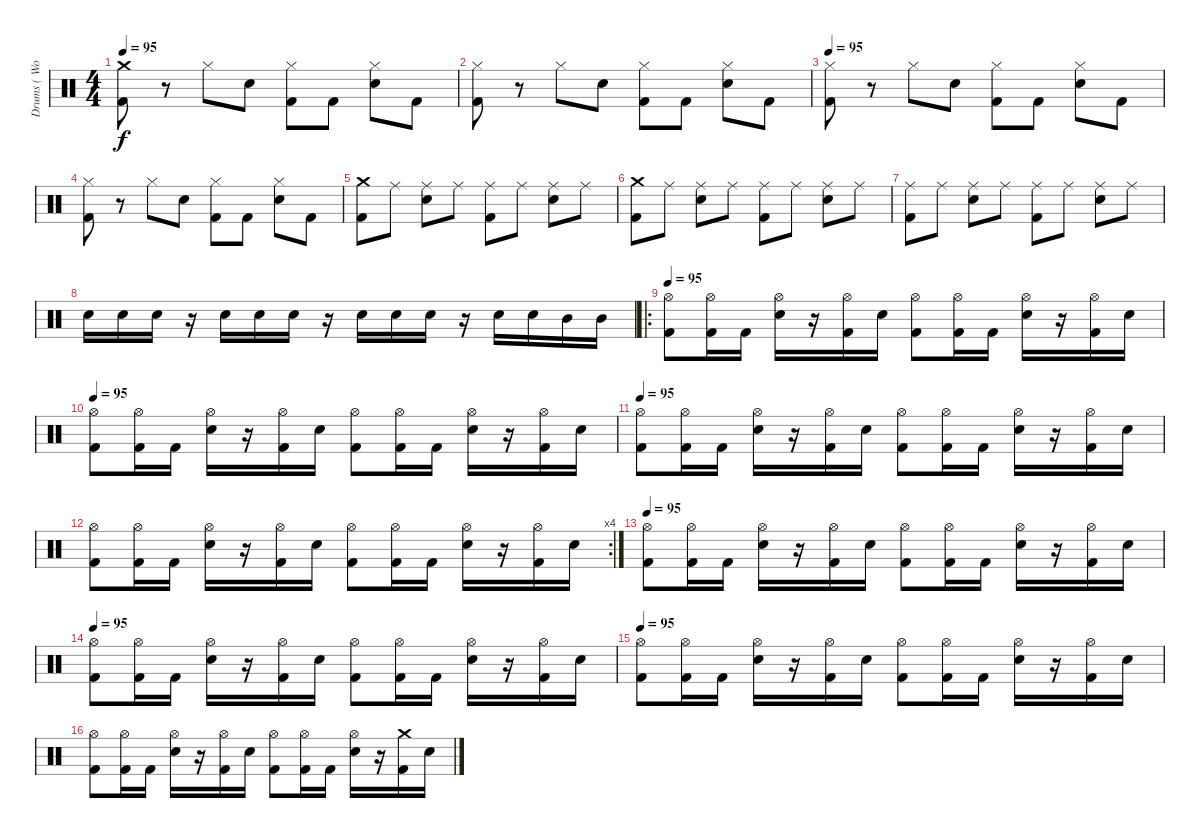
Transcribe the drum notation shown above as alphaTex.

\track ("Drums ( Wolf Simons)" "Drums ( Wo") {instrument percussion}
\staff {score}
\articulation defaults
\ts (4 4)
\tempo 95
\clef neutral
\ks c
("Crash medium (hit)" "Kick (hit) 2").8{dy f} r.8 "Hi-Hat (closed)".8 "Electric Snare (hit)".8 ("Hi-Hat (closed)" "Kick (hit) 2").8 "Kick (hit) 2".8 ("Hi-Hat (closed)" "Electric Snare (hit)").8 "Kick (hit) 2".8 |
("Hi-Hat (closed)" "Kick (hit) 2").8 r.8 "Hi-Hat (closed)".8 "Electric Snare (hit)".8 ("Hi-Hat (closed)" "Kick (hit) 2").8 "Kick (hit) 2".8 ("Hi-Hat (closed)" "Electric Snare (hit)").8 "Kick (hit) 2".8 |
\tempo 95
("Hi-Hat (closed)" "Kick (hit) 2").8 r.8 "Hi-Hat (closed)".8 "Electric Snare (hit)".8 ("Hi-Hat (closed)" "Kick (hit) 2").8 "Kick (hit) 2".8 ("Hi-Hat (closed)" "Electric Snare (hit)").8 "Kick (hit) 2".8 |
("Hi-Hat (closed)" "Kick (hit) 2").8 r.8 "Hi-Hat (closed)".8 "Electric Snare (hit)".8 ("Hi-Hat (closed)" "Kick (hit) 2").8 "Kick (hit) 2".8 ("Hi-Hat (closed)" "Electric Snare (hit)").8 "Kick (hit) 2".8 |
("Crash medium (hit)" "Kick (hit) 2").8 "Ride (middle)".8 ("Ride (middle)" "Electric Snare (hit)").8 "Ride (middle)".8 ("Ride (middle)" "Kick (hit) 2").8 "Ride (middle)".8 ("Ride (middle)" "Electric Snare (hit)").8 "Ride (middle)".8 |
("Crash medium (hit)" "Kick (hit) 2").8 "Ride (middle)".8 ("Ride (middle)" "Electric Snare (hit)").8 "Ride (middle)".8 ("Ride (middle)" "Kick (hit) 2").8 "Ride (middle)".8 ("Ride (middle)" "Electric Snare (hit)").8 "Ride (middle)".8 |
("Ride (middle)" "Kick (hit) 2").8 "Ride (middle)".8 ("Ride (middle)" "Electric Snare (hit)").8 "Ride (middle)".8 ("Ride (middle)" "Kick (hit) 2").8 "Ride (middle)".8 ("Ride (middle)" "Electric Snare (hit)").8 "Ride (middle)".8 |
"Electric Snare (hit)".16 "Electric Snare (hit)".16 "Electric Snare (hit)".16 r.16 "Electric Snare (hit)".16 "Electric Snare (hit)".16 "Electric Snare (hit)".16 r.16 "Electric Snare (hit)".16 "Electric Snare (hit)".16 "Electric Snare (hit)".16 r.16 "Electric Snare (hit)".16 "Electric Snare (hit)".16 "Mid Tom (hit)".16 "Mid Tom (hit)".16 |
\ro
\tempo 95
("Kick (hit) 2" "Hi-Hat (open)").8 ("Kick (hit) 2" "Hi-Hat (open)").16 "Kick (hit) 2".16 ("Electric Snare (hit)" "Hi-Hat (open)").16 r.16 ("Kick (hit) 2" "Hi-Hat (open)").16 "Electric Snare (hit)".16 ("Kick (hit) 2" "Hi-Hat (open)").8 ("Kick (hit) 2" "Hi-Hat (open)").16 "Kick (hit) 2".16 ("Electric Snare (hit)" "Hi-Hat (open)").16 r.16 ("Kick (hit) 2" "Hi-Hat (open)").16 "Electric Snare (hit)".16 |
\tempo 95
("Kick (hit) 2" "Hi-Hat (open)").8 ("Kick (hit) 2" "Hi-Hat (open)").16 "Kick (hit) 2".16 ("Electric Snare (hit)" "Hi-Hat (open)").16 r.16 ("Kick (hit) 2" "Hi-Hat (open)").16 "Electric Snare (hit)".16 ("Kick (hit) 2" "Hi-Hat (open)").8 ("Kick (hit) 2" "Hi-Hat (open)").16 "Kick (hit) 2".16 ("Electric Snare (hit)" "Hi-Hat (open)").16 r.16 ("Kick (hit) 2" "Hi-Hat (open)").16 "Electric Snare (hit)".16 |
\tempo 95
("Kick (hit) 2" "Hi-Hat (open)").8 ("Kick (hit) 2" "Hi-Hat (open)").16 "Kick (hit) 2".16 ("Electric Snare (hit)" "Hi-Hat (open)").16 r.16 ("Kick (hit) 2" "Hi-Hat (open)").16 "Electric Snare (hit)".16 ("Kick (hit) 2" "Hi-Hat (open)").8 ("Kick (hit) 2" "Hi-Hat (open)").16 "Kick (hit) 2".16 ("Electric Snare (hit)" "Hi-Hat (open)").16 r.16 ("Kick (hit) 2" "Hi-Hat (open)").16 "Electric Snare (hit)".16 |
\rc 4
("Kick (hit) 2" "Hi-Hat (open)").8 ("Kick (hit) 2" "Hi-Hat (open)").16 "Kick (hit) 2".16 ("Electric Snare (hit)" "Hi-Hat (open)").16 r.16 ("Kick (hit) 2" "Hi-Hat (open)").16 "Electric Snare (hit)".16 ("Kick (hit) 2" "Hi-Hat (open)").8 ("Kick (hit) 2" "Hi-Hat (open)").16 "Kick (hit) 2".16 ("Electric Snare (hit)" "Hi-Hat (open)").16 r.16 ("Kick (hit) 2" "Hi-Hat (open)").16 "Electric Snare (hit)".16 |
\tempo 95
("Kick (hit) 2" "Hi-Hat (open)").8 ("Kick (hit) 2" "Hi-Hat (open)").16 "Kick (hit) 2".16 ("Electric Snare (hit)" "Hi-Hat (open)").16 r.16 ("Kick (hit) 2" "Hi-Hat (open)").16 "Electric Snare (hit)".16 ("Kick (hit) 2" "Hi-Hat (open)").8 ("Kick (hit) 2" "Hi-Hat (open)").16 "Kick (hit) 2".16 ("Electric Snare (hit)" "Hi-Hat (open)").16 r.16 ("Kick (hit) 2" "Hi-Hat (open)").16 "Electric Snare (hit)".16 |
\tempo 95
("Kick (hit) 2" "Hi-Hat (open)").8 ("Kick (hit) 2" "Hi-Hat (open)").16 "Kick (hit) 2".16 ("Electric Snare (hit)" "Hi-Hat (open)").16 r.16 ("Kick (hit) 2" "Hi-Hat (open)").16 "Electric Snare (hit)".16 ("Kick (hit) 2" "Hi-Hat (open)").8 ("Kick (hit) 2" "Hi-Hat (open)").16 "Kick (hit) 2".16 ("Electric Snare (hit)" "Hi-Hat (open)").16 r.16 ("Kick (hit) 2" "Hi-Hat (open)").16 "Electric Snare (hit)".16 |
\tempo 95
("Kick (hit) 2" "Hi-Hat (open)").8 ("Kick (hit) 2" "Hi-Hat (open)").16 "Kick (hit) 2".16 ("Electric Snare (hit)" "Hi-Hat (open)").16 r.16 ("Kick (hit) 2" "Hi-Hat (open)").16 "Electric Snare (hit)".16 ("Kick (hit) 2" "Hi-Hat (open)").8 ("Kick (hit) 2" "Hi-Hat (open)").16 "Kick (hit) 2".16 ("Electric Snare (hit)" "Hi-Hat (open)").16 r.16 ("Kick (hit) 2" "Hi-Hat (open)").16 "Electric Snare (hit)".16 |
("Kick (hit) 2" "Hi-Hat (open)").8 ("Kick (hit) 2" "Hi-Hat (open)").16 "Kick (hit) 2".16 ("Electric Snare (hit)" "Hi-Hat (open)").16 r.16 ("Kick (hit) 2" "Hi-Hat (open)").16 "Electric Snare (hit)".16 ("Kick (hit) 2" "Hi-Hat (open)").8 ("Kick (hit) 2" "Hi-Hat (open)").16 "Kick (hit) 2".16 ("Electric Snare (hit)" "Hi-Hat (open)").16 r.16 ("Kick (hit) 2" "Crash medium (hit)").16 "Electric Snare (hit)".16
